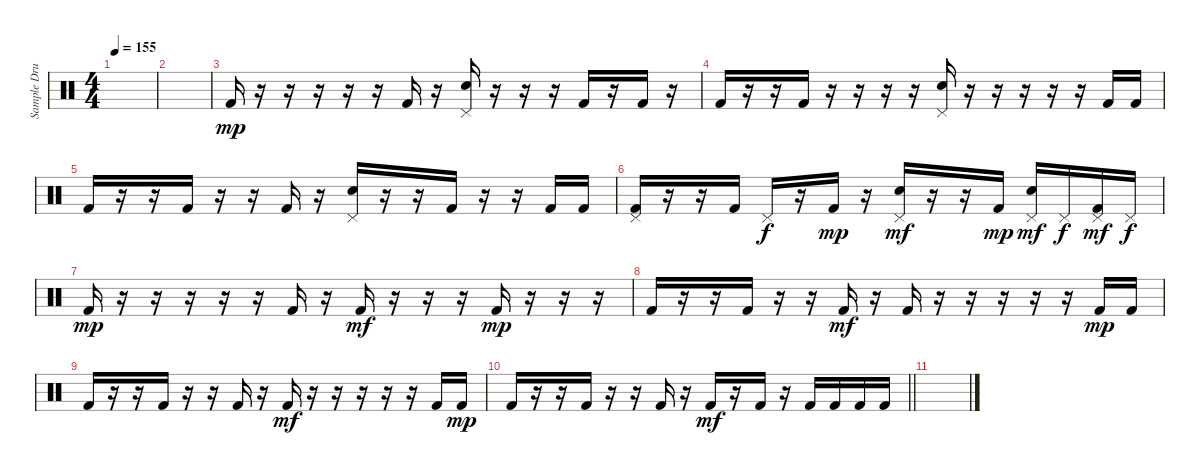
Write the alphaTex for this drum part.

\track ("Sample Drums" "Sample Dru") {instrument percussion}
\staff {score}
\articulation defaults
\ts (4 4)
\tempo 155
\clef neutral
\ks c
|
|
"Kick (hit) 2".16{dy mp} r.16 r.16 r.16 r.16 r.16 "Kick (hit) 2".16 r.16 ("Pedal Hi-Hat (hit)" "Electric Snare (hit)").16 r.16 r.16 r.16 "Kick (hit) 2".16 r.16 "Kick (hit) 2".16 r.16 |
"Kick (hit) 2".16 r.16 r.16 "Kick (hit) 2".16 r.16 r.16 r.16 r.16 ("Pedal Hi-Hat (hit)" "Electric Snare (hit)").16 r.16 r.16 r.16 r.16 r.16 "Kick (hit) 2".16 "Kick (hit) 2".16 |
"Kick (hit) 2".16 r.16 r.16 "Kick (hit) 2".16 r.16 r.16 "Kick (hit) 2".16 r.16 ("Pedal Hi-Hat (hit)" "Electric Snare (hit)").16 r.16 r.16 "Kick (hit) 2".16 r.16 r.16 "Kick (hit) 2".16 "Kick (hit) 2".16 |
("Pedal Hi-Hat (hit)" "Kick (hit) 2").16 r.16 r.16 "Kick (hit) 2".16 "Pedal Hi-Hat (hit)".16{dy f} r.16 "Kick (hit) 2".16{dy mp} r.16 ("Pedal Hi-Hat (hit)" "Electric Snare (hit)").16{dy mf} r.16 r.16 "Kick (hit) 2".16{dy mp} ("Pedal Hi-Hat (hit)" "Electric Snare (hit)").16{dy mf} "Pedal Hi-Hat (hit)".16{dy f} ("Pedal Hi-Hat (hit)" "Kick (hit) 2").16{dy mf} "Pedal Hi-Hat (hit)".16{dy f} |
"Kick (hit) 2".16{dy mp} r.16 r.16 r.16 r.16 r.16 "Kick (hit) 2".16 r.16 "Kick (hit) 2".16{dy mf} r.16 r.16 r.16 "Kick (hit) 2".16{dy mp} r.16 r.16 r.16 |
"Kick (hit) 2".16 r.16 r.16 "Kick (hit) 2".16 r.16 r.16 "Kick (hit) 2".16{dy mf} r.16 "Kick (hit) 2".16 r.16 r.16 r.16 r.16 r.16 "Kick (hit) 2".16{dy mp} "Kick (hit) 2".16 |
"Kick (hit) 2".16 r.16 r.16 "Kick (hit) 2".16 r.16 r.16 "Kick (hit) 2".16 r.16 "Kick (hit) 2".16{dy mf} r.16 r.16 r.16 r.16 r.16 "Kick (hit) 2".16 "Kick (hit) 2".16{dy mp} |
\barLineRight lightlight "Kick (hit) 2".16
r.16 r.16 "Kick (hit) 2".16 r.16 r.16 "Kick (hit) 2".16 r.16 "Kick (hit) 2".16{dy mf} r.16 "Kick (hit) 2".16 r.16 "Kick (hit) 2".16 "Kick (hit) 2".16 "Kick (hit) 2".16 "Kick (hit) 2".16 |
\section ("" "")
